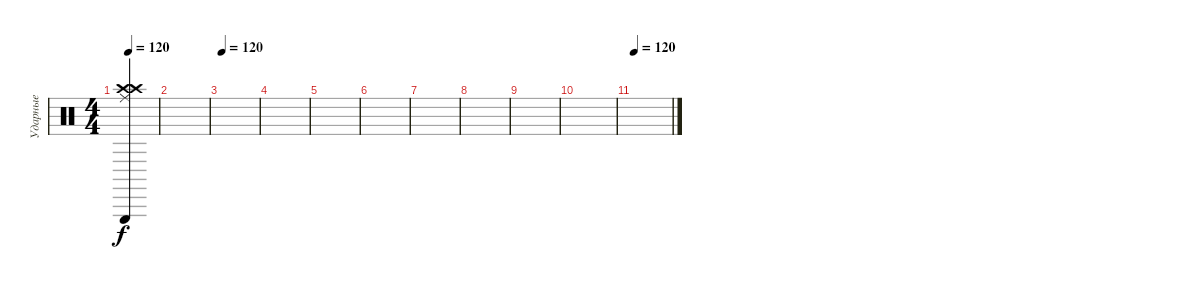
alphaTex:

\track ("Ударные" "Ударные") {instrument percussion}
\staff
\articulation defaults
\ts (4 4)
\tempo 120
\clef neutral
\ks c
("Ride (middle)" "Crash high (hit)" "Triangle (hit)" "Crash high (hit)").4{dy f} |
|
\tempo 120
|
|
|
|
|
|
|
|
\tempo 120
